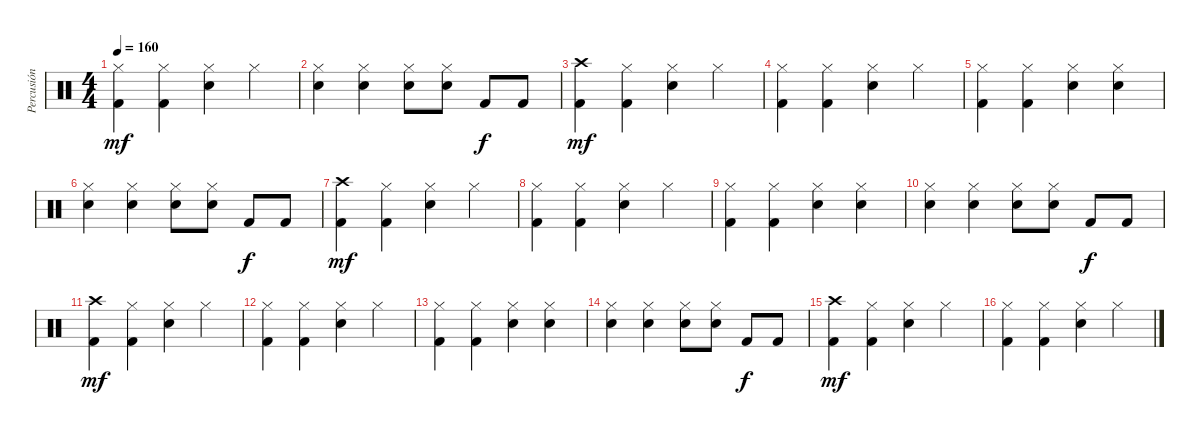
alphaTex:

\track ("Percusión" "Percusión") {instrument percussion}
\staff {score}
\articulation defaults
\ts (4 4)
\tempo 160
\clef neutral
\ks c
("Hi-Hat (closed)" "Kick (hit) 2").4{dy mf} ("Hi-Hat (closed)" "Kick (hit) 2").4 ("Hi-Hat (closed)" "Snare (hit) 2").4 "Hi-Hat (closed)".4 |
("Hi-Hat (closed)" "Snare (hit) 2").4 ("Hi-Hat (closed)" "Electric Snare (hit)").4 ("Hi-Hat (closed)" "Snare (hit) 2").8 ("Hi-Hat (closed)" "Snare (hit) 2").8 "Kick (hit) 2".8{dy f} "Kick (hit) 2".8 |
("Crash high (hit)" "Kick (hit) 2").4{dy mf} ("Hi-Hat (closed)" "Kick (hit) 2").4 ("Hi-Hat (closed)" "Snare (hit) 2").4 "Hi-Hat (closed)".4 |
("Hi-Hat (closed)" "Kick (hit) 2").4 ("Hi-Hat (closed)" "Kick (hit) 2").4 ("Hi-Hat (closed)" "Snare (hit) 2").4 "Hi-Hat (closed)".4 |
("Hi-Hat (closed)" "Kick (hit) 2").4 ("Hi-Hat (closed)" "Kick (hit) 2").4 ("Hi-Hat (closed)" "Snare (hit) 2").4 ("Hi-Hat (closed)" "Snare (hit) 2").4 |
("Hi-Hat (closed)" "Snare (hit) 2").4 ("Hi-Hat (closed)" "Electric Snare (hit)").4 ("Hi-Hat (closed)" "Snare (hit) 2").8 ("Hi-Hat (closed)" "Snare (hit) 2").8 "Kick (hit) 2".8{dy f} "Kick (hit) 2".8 |
("Crash high (hit)" "Kick (hit) 2").4{dy mf} ("Hi-Hat (closed)" "Kick (hit) 2").4 ("Hi-Hat (closed)" "Snare (hit) 2").4 "Hi-Hat (closed)".4 |
("Hi-Hat (closed)" "Kick (hit) 2").4 ("Hi-Hat (closed)" "Kick (hit) 2").4 ("Hi-Hat (closed)" "Snare (hit) 2").4 "Hi-Hat (closed)".4 |
("Hi-Hat (closed)" "Kick (hit) 2").4 ("Hi-Hat (closed)" "Kick (hit) 2").4 ("Hi-Hat (closed)" "Snare (hit) 2").4 ("Hi-Hat (closed)" "Snare (hit) 2").4 |
("Hi-Hat (closed)" "Snare (hit) 2").4 ("Hi-Hat (closed)" "Electric Snare (hit)").4 ("Hi-Hat (closed)" "Snare (hit) 2").8 ("Hi-Hat (closed)" "Snare (hit) 2").8 "Kick (hit) 2".8{dy f} "Kick (hit) 2".8 |
("Crash high (hit)" "Kick (hit) 2").4{dy mf} ("Hi-Hat (closed)" "Kick (hit) 2").4 ("Hi-Hat (closed)" "Snare (hit) 2").4 "Hi-Hat (closed)".4 |
("Hi-Hat (closed)" "Kick (hit) 2").4 ("Hi-Hat (closed)" "Kick (hit) 2").4 ("Hi-Hat (closed)" "Snare (hit) 2").4 "Hi-Hat (closed)".4 |
("Hi-Hat (closed)" "Kick (hit) 2").4 ("Hi-Hat (closed)" "Kick (hit) 2").4 ("Hi-Hat (closed)" "Snare (hit) 2").4 ("Hi-Hat (closed)" "Snare (hit) 2").4 |
("Hi-Hat (closed)" "Snare (hit) 2").4 ("Hi-Hat (closed)" "Electric Snare (hit)").4 ("Hi-Hat (closed)" "Snare (hit) 2").8 ("Hi-Hat (closed)" "Snare (hit) 2").8 "Kick (hit) 2".8{dy f} "Kick (hit) 2".8 |
("Crash high (hit)" "Kick (hit) 2").4{dy mf} ("Hi-Hat (closed)" "Kick (hit) 2").4 ("Hi-Hat (closed)" "Snare (hit) 2").4 "Hi-Hat (closed)".4 |
("Hi-Hat (closed)" "Kick (hit) 2").4 ("Hi-Hat (closed)" "Kick (hit) 2").4 ("Hi-Hat (closed)" "Snare (hit) 2").4 "Hi-Hat (closed)".4
